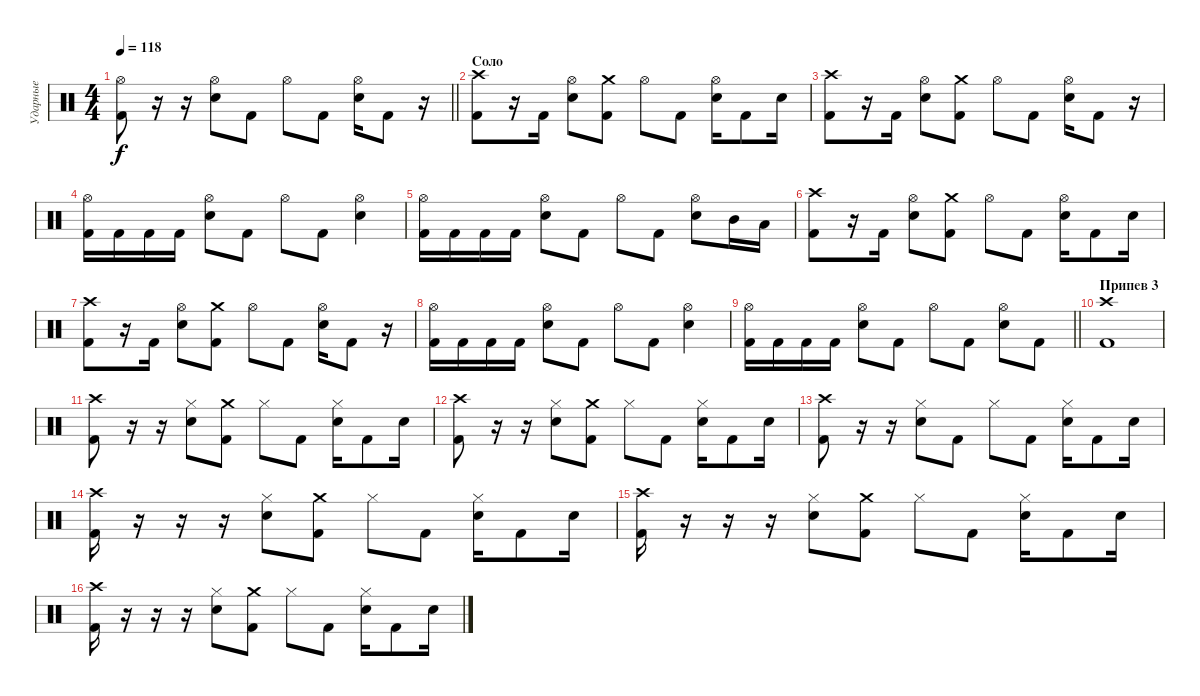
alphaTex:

\track ("Ударные" "Ударные") {instrument percussion}
\staff {score}
\articulation defaults
\ts (4 4)
\tempo 118
\clef neutral
\barLineRight lightlight
\ks c
("Hi-Hat (open)" "Kick (hit) 2").8{dy f} r.16 r.16 ("Hi-Hat (open)" "Snare (hit) 2").8 "Kick (hit) 2".8 "Hi-Hat (open)".8 "Kick (hit) 2".8 ("Hi-Hat (open)" "Snare (hit) 2").16 "Kick (hit) 2".8 r.16 |
\section ("" "Соло")
("Crash high (hit)" "Kick (hit) 2").8 r.16 "Kick (hit) 2".16 ("Hi-Hat (open)" "Snare (hit) 2").8 ("Crash medium (hit)" "Kick (hit) 2").8 "Hi-Hat (open)".8 "Kick (hit) 2".8 ("Hi-Hat (open)" "Snare (hit) 2").16 "Kick (hit) 2".8 "Snare (hit) 2".16 |
("Crash high (hit)" "Kick (hit) 2").8 r.16 "Kick (hit) 2".16 ("Hi-Hat (open)" "Snare (hit) 2").8 ("Crash medium (hit)" "Kick (hit) 2").8 "Hi-Hat (open)".8 "Kick (hit) 2".8 ("Hi-Hat (open)" "Snare (hit) 2").16 "Kick (hit) 2".8 r.16 |
("Hi-Hat (open)" "Kick (hit) 2").16 "Kick (hit) 2".16 "Kick (hit) 2".16 "Kick (hit) 2".16 ("Hi-Hat (open)" "Snare (hit) 2").8 "Kick (hit) 2".8 "Hi-Hat (open)".8 "Kick (hit) 2".8 ("Hi-Hat (open)" "Snare (hit) 2").4 |
("Hi-Hat (open)" "Kick (hit) 2").16 "Kick (hit) 2".16 "Kick (hit) 2".16 "Kick (hit) 2".16 ("Hi-Hat (open)" "Snare (hit) 2").8 "Kick (hit) 2".8 "Hi-Hat (open)".8 "Kick (hit) 2".8 ("Hi-Hat (open)" "Snare (hit) 2").8 "Mid Tom (hit)".16 "Low Tom (hit)".16 |
("Crash high (hit)" "Kick (hit) 2").8 r.16 "Kick (hit) 2".16 ("Hi-Hat (open)" "Snare (hit) 2").8 ("Crash medium (hit)" "Kick (hit) 2").8 "Hi-Hat (open)".8 "Kick (hit) 2".8 ("Hi-Hat (open)" "Snare (hit) 2").16 "Kick (hit) 2".8 "Snare (hit) 2".16 |
("Crash high (hit)" "Kick (hit) 2").8 r.16 "Kick (hit) 2".16 ("Hi-Hat (open)" "Snare (hit) 2").8 ("Crash medium (hit)" "Kick (hit) 2").8 "Hi-Hat (open)".8 "Kick (hit) 2".8 ("Hi-Hat (open)" "Snare (hit) 2").16 "Kick (hit) 2".8 r.16 |
("Hi-Hat (open)" "Kick (hit) 2").16 "Kick (hit) 2".16 "Kick (hit) 2".16 "Kick (hit) 2".16 ("Hi-Hat (open)" "Snare (hit) 2").8 "Kick (hit) 2".8 "Hi-Hat (open)".8 "Kick (hit) 2".8 ("Hi-Hat (open)" "Snare (hit) 2").4 |
\barLineRight lightlight
("Hi-Hat (open)" "Kick (hit) 2").16 "Kick (hit) 2".16 "Kick (hit) 2".16 "Kick (hit) 2".16 ("Hi-Hat (open)" "Snare (hit) 2").8 "Kick (hit) 2".8 "Hi-Hat (open)".8 "Kick (hit) 2".8 ("Hi-Hat (open)" "Snare (hit) 2").8 "Kick (hit) 2".8 |
\section ("" "Припев 3")
("Crash high (hit)" "Kick (hit) 2").1 |
("Crash high (hit)" "Kick (hit) 2").8 r.16 r.16 ("Hi-Hat (closed)" "Snare (hit) 2").8 ("Crash medium (hit)" "Kick (hit) 2").8 "Hi-Hat (closed)".8 "Kick (hit) 2".8 ("Hi-Hat (closed)" "Snare (hit) 2").16 "Kick (hit) 2".8 "Snare (hit) 2".16 |
("Crash high (hit)" "Kick (hit) 2").8 r.16 r.16 ("Hi-Hat (closed)" "Snare (hit) 2").8 ("Crash medium (hit)" "Kick (hit) 2").8 "Hi-Hat (closed)".8 "Kick (hit) 2".8 ("Hi-Hat (closed)" "Snare (hit) 2").16 "Kick (hit) 2".8 "Snare (hit) 2".16 |
("Crash high (hit)" "Kick (hit) 2").8 r.16 r.16 ("Hi-Hat (closed)" "Snare (hit) 2").8 "Kick (hit) 2".8 "Hi-Hat (closed)".8 "Kick (hit) 2".8 ("Hi-Hat (closed)" "Snare (hit) 2").16 "Kick (hit) 2".8 "Snare (hit) 2".16 |
("Crash high (hit)" "Kick (hit) 2").16 r.16 r.16 r.16 ("Hi-Hat (closed)" "Snare (hit) 2").8 ("Crash medium (hit)" "Kick (hit) 2").8 "Hi-Hat (closed)".8 "Kick (hit) 2".8 ("Hi-Hat (closed)" "Snare (hit) 2").16 "Kick (hit) 2".8 "Snare (hit) 2".16 |
("Crash high (hit)" "Kick (hit) 2").16 r.16 r.16 r.16 ("Hi-Hat (closed)" "Snare (hit) 2").8 ("Crash medium (hit)" "Kick (hit) 2").8 "Hi-Hat (closed)".8 "Kick (hit) 2".8 ("Hi-Hat (closed)" "Snare (hit) 2").16 "Kick (hit) 2".8 "Snare (hit) 2".16 |
("Crash high (hit)" "Kick (hit) 2").16 r.16 r.16 r.16 ("Hi-Hat (closed)" "Snare (hit) 2").8 ("Crash medium (hit)" "Kick (hit) 2").8 "Hi-Hat (closed)".8 "Kick (hit) 2".8 ("Hi-Hat (closed)" "Snare (hit) 2").16 "Kick (hit) 2".8 "Snare (hit) 2".16
